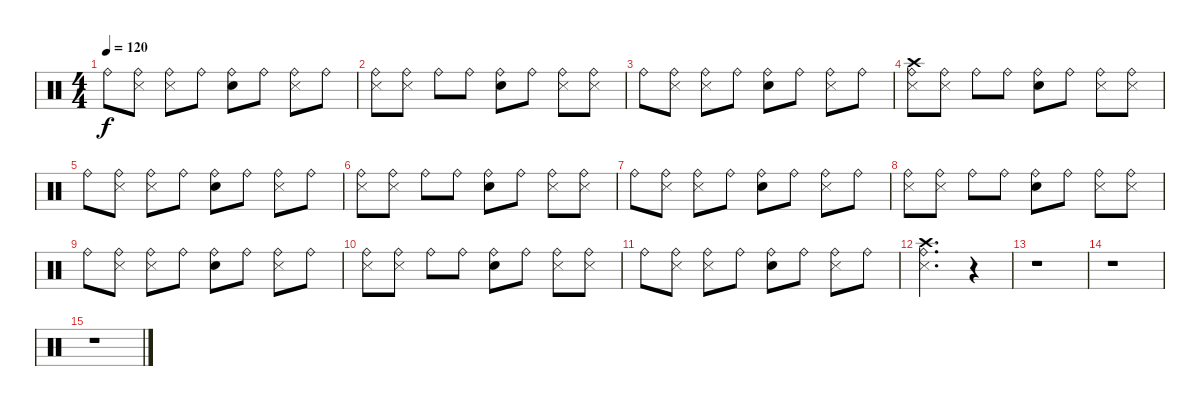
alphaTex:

\track "" {instrument percussion}
\staff {score}
\articulation defaults
\ts (4 4)
\tempo 120
\clef neutral
\ks c "Ride (bell)".8{dy f}
("Metronome (hit)" "Ride (bell)").8 ("Metronome (hit)" "Ride (bell)").8 "Ride (bell)".8 ("Electric Snare (hit)" "Ride (bell)").8 "Ride (bell)".8 ("Metronome (hit)" "Ride (bell)").8 "Ride (bell)".8 |
("Metronome (hit)" "Ride (bell)").8 ("Metronome (hit)" "Ride (bell)").8 "Ride (bell)".8 "Ride (bell)".8 ("Electric Snare (hit)" "Ride (bell)").8 "Ride (bell)".8 ("Metronome (hit)" "Ride (bell)").8 ("Metronome (hit)" "Ride (bell)").8 |
"Ride (bell)".8 ("Metronome (hit)" "Ride (bell)").8 ("Metronome (hit)" "Ride (bell)").8 "Ride (bell)".8 ("Electric Snare (hit)" "Ride (bell)").8 "Ride (bell)".8 ("Metronome (hit)" "Ride (bell)").8 "Ride (bell)".8 |
("Metronome (hit)" "Crash high (hit)" "Ride (bell)").8 ("Metronome (hit)" "Ride (bell)").8 "Ride (bell)".8 "Ride (bell)".8 ("Electric Snare (hit)" "Ride (bell)").8 "Ride (bell)".8 ("Metronome (hit)" "Ride (bell)").8 ("Metronome (hit)" "Ride (bell)").8 |
"Ride (bell)".8 ("Metronome (hit)" "Ride (bell)").8 ("Metronome (hit)" "Ride (bell)").8 "Ride (bell)".8 ("Electric Snare (hit)" "Ride (bell)").8 "Ride (bell)".8 ("Metronome (hit)" "Ride (bell)").8 "Ride (bell)".8 |
("Metronome (hit)" "Ride (bell)").8 ("Metronome (hit)" "Ride (bell)").8 "Ride (bell)".8 "Ride (bell)".8 ("Electric Snare (hit)" "Ride (bell)").8 "Ride (bell)".8 ("Metronome (hit)" "Ride (bell)").8 ("Metronome (hit)" "Ride (bell)").8 |
"Ride (bell)".8 ("Metronome (hit)" "Ride (bell)").8 ("Metronome (hit)" "Ride (bell)").8 "Ride (bell)".8 ("Electric Snare (hit)" "Ride (bell)").8 "Ride (bell)".8 ("Metronome (hit)" "Ride (bell)").8 "Ride (bell)".8 |
("Metronome (hit)" "Ride (bell)").8 ("Metronome (hit)" "Ride (bell)").8 "Ride (bell)".8 "Ride (bell)".8 ("Electric Snare (hit)" "Ride (bell)").8 "Ride (bell)".8 ("Metronome (hit)" "Ride (bell)").8 ("Metronome (hit)" "Ride (bell)").8 |
"Ride (bell)".8 ("Metronome (hit)" "Ride (bell)").8 ("Metronome (hit)" "Ride (bell)").8 "Ride (bell)".8 ("Electric Snare (hit)" "Ride (bell)").8 "Ride (bell)".8 ("Metronome (hit)" "Ride (bell)").8 "Ride (bell)".8 |
("Metronome (hit)" "Ride (bell)").8 ("Metronome (hit)" "Ride (bell)").8 "Ride (bell)".8 "Ride (bell)".8 ("Electric Snare (hit)" "Ride (bell)").8 "Ride (bell)".8 ("Metronome (hit)" "Ride (bell)").8 ("Metronome (hit)" "Ride (bell)").8 |
"Ride (bell)".8 ("Metronome (hit)" "Ride (bell)").8 ("Metronome (hit)" "Ride (bell)").8 "Ride (bell)".8 ("Electric Snare (hit)" "Ride (bell)").8 "Ride (bell)".8 ("Metronome (hit)" "Ride (bell)").8 "Ride (bell)".8 |
("Metronome (hit)" "Ride (bell)" "Crash high (hit)").2{d} r.4 |
r.1 |
r.1 |
r.1
